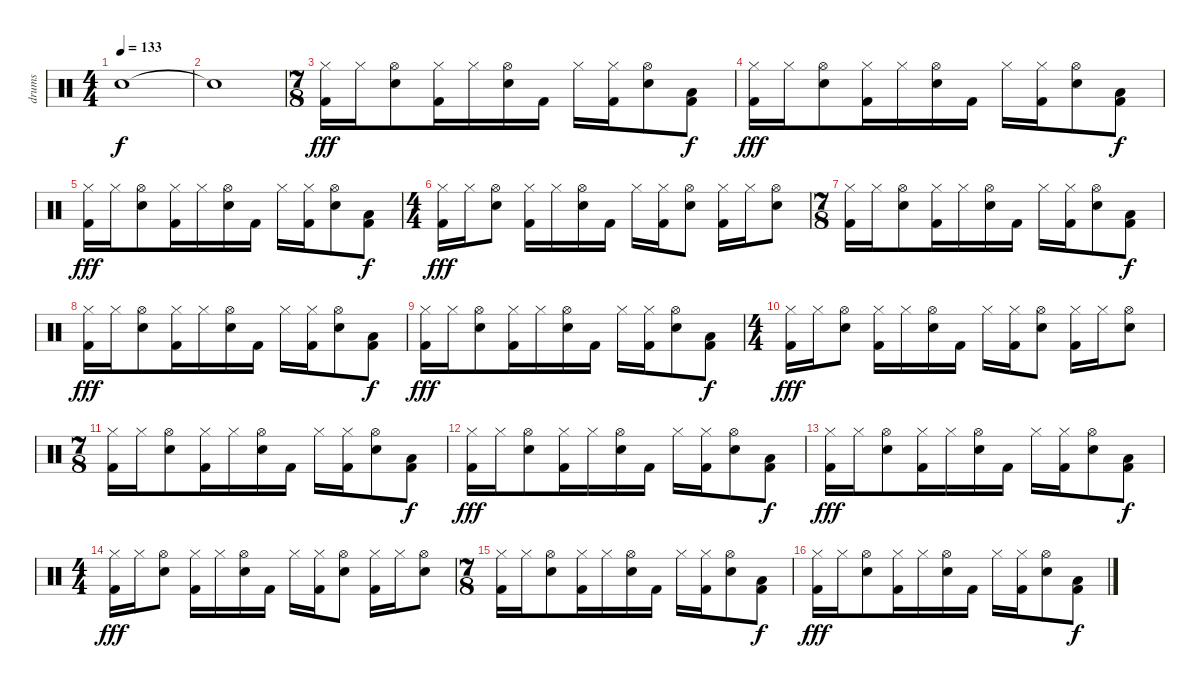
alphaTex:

\track ("drums" "drums") {instrument percussion}
\staff {score}
\articulation defaults
\ts (4 4)
\tempo 133
\clef neutral
\ks c "Snare (hit)"{t}.1{dy f}
|
"Snare (hit)"{t}.1 |
\ts (7 8)
("Kick (hit) 2" "Hi-Hat (closed)").16{dy fff} "Hi-Hat (closed)".16 ("Hi-Hat (open)" "Electric Snare (hit)").8 ("Kick (hit) 2" "Hi-Hat (closed)").16 "Hi-Hat (closed)".16 ("Hi-Hat (open)" "Electric Snare (hit)").16 "Kick (hit) 2".16 "Hi-Hat (closed)".16 ("Kick (hit) 2" "Hi-Hat (closed)").16 ("Hi-Hat (open)" "Electric Snare (hit)").8 ("Kick (hit) 2" "Low Floor Tom (hit)").8{dy f} |
("Kick (hit) 2" "Hi-Hat (closed)").16{dy fff} "Hi-Hat (closed)".16 ("Hi-Hat (open)" "Electric Snare (hit)").8 ("Kick (hit) 2" "Hi-Hat (closed)").16 "Hi-Hat (closed)".16 ("Hi-Hat (open)" "Electric Snare (hit)").16 "Kick (hit) 2".16 "Hi-Hat (closed)".16 ("Kick (hit) 2" "Hi-Hat (closed)").16 ("Hi-Hat (open)" "Electric Snare (hit)").8 ("Kick (hit) 2" "Low Floor Tom (hit)").8{dy f} |
("Kick (hit) 2" "Hi-Hat (closed)").16{dy fff} "Hi-Hat (closed)".16 ("Hi-Hat (open)" "Electric Snare (hit)").8 ("Kick (hit) 2" "Hi-Hat (closed)").16 "Hi-Hat (closed)".16 ("Hi-Hat (open)" "Electric Snare (hit)").16 "Kick (hit) 2".16 "Hi-Hat (closed)".16 ("Kick (hit) 2" "Hi-Hat (closed)").16 ("Hi-Hat (open)" "Electric Snare (hit)").8 ("Kick (hit) 2" "Low Floor Tom (hit)").8{dy f} |
\ts (4 4)
("Kick (hit) 2" "Hi-Hat (closed)").16{dy fff} "Hi-Hat (closed)".16 ("Hi-Hat (open)" "Electric Snare (hit)").8 ("Kick (hit) 2" "Hi-Hat (closed)").16 "Hi-Hat (closed)".16 ("Hi-Hat (open)" "Electric Snare (hit)").16 "Kick (hit) 2".16 "Hi-Hat (closed)".16 ("Kick (hit) 2" "Hi-Hat (closed)").16 ("Hi-Hat (open)" "Electric Snare (hit)").8 ("Hi-Hat (closed)" "Kick (hit) 2").16 "Hi-Hat (closed)".16 ("Hi-Hat (open)" "Electric Snare (hit)").8 |
\ts (7 8)
("Kick (hit) 2" "Hi-Hat (closed)").16 "Hi-Hat (closed)".16 ("Hi-Hat (open)" "Electric Snare (hit)").8 ("Kick (hit) 2" "Hi-Hat (closed)").16 "Hi-Hat (closed)".16 ("Hi-Hat (open)" "Electric Snare (hit)").16 "Kick (hit) 2".16 "Hi-Hat (closed)".16 ("Kick (hit) 2" "Hi-Hat (closed)").16 ("Hi-Hat (open)" "Electric Snare (hit)").8 ("Kick (hit) 2" "Low Floor Tom (hit)").8{dy f} |
("Kick (hit) 2" "Hi-Hat (closed)").16{dy fff} "Hi-Hat (closed)".16 ("Hi-Hat (open)" "Electric Snare (hit)").8 ("Kick (hit) 2" "Hi-Hat (closed)").16 "Hi-Hat (closed)".16 ("Hi-Hat (open)" "Electric Snare (hit)").16 "Kick (hit) 2".16 "Hi-Hat (closed)".16 ("Kick (hit) 2" "Hi-Hat (closed)").16 ("Hi-Hat (open)" "Electric Snare (hit)").8 ("Kick (hit) 2" "Low Floor Tom (hit)").8{dy f} |
("Kick (hit) 2" "Hi-Hat (closed)").16{dy fff} "Hi-Hat (closed)".16 ("Hi-Hat (open)" "Electric Snare (hit)").8 ("Kick (hit) 2" "Hi-Hat (closed)").16 "Hi-Hat (closed)".16 ("Hi-Hat (open)" "Electric Snare (hit)").16 "Kick (hit) 2".16 "Hi-Hat (closed)".16 ("Kick (hit) 2" "Hi-Hat (closed)").16 ("Hi-Hat (open)" "Electric Snare (hit)").8 ("Kick (hit) 2" "Low Floor Tom (hit)").8{dy f} |
\ts (4 4)
("Kick (hit) 2" "Hi-Hat (closed)").16{dy fff} "Hi-Hat (closed)".16 ("Hi-Hat (open)" "Electric Snare (hit)").8 ("Kick (hit) 2" "Hi-Hat (closed)").16 "Hi-Hat (closed)".16 ("Hi-Hat (open)" "Electric Snare (hit)").16 "Kick (hit) 2".16 "Hi-Hat (closed)".16 ("Kick (hit) 2" "Hi-Hat (closed)").16 ("Hi-Hat (open)" "Electric Snare (hit)").8 ("Hi-Hat (closed)" "Kick (hit) 2").16 "Hi-Hat (closed)".16 ("Hi-Hat (open)" "Electric Snare (hit)").8 |
\ts (7 8)
("Kick (hit) 2" "Hi-Hat (closed)").16 "Hi-Hat (closed)".16 ("Hi-Hat (open)" "Electric Snare (hit)").8 ("Kick (hit) 2" "Hi-Hat (closed)").16 "Hi-Hat (closed)".16 ("Hi-Hat (open)" "Electric Snare (hit)").16 "Kick (hit) 2".16 "Hi-Hat (closed)".16 ("Kick (hit) 2" "Hi-Hat (closed)").16 ("Hi-Hat (open)" "Electric Snare (hit)").8 ("Kick (hit) 2" "Low Floor Tom (hit)").8{dy f} |
("Kick (hit) 2" "Hi-Hat (closed)").16{dy fff} "Hi-Hat (closed)".16 ("Hi-Hat (open)" "Electric Snare (hit)").8 ("Kick (hit) 2" "Hi-Hat (closed)").16 "Hi-Hat (closed)".16 ("Hi-Hat (open)" "Electric Snare (hit)").16 "Kick (hit) 2".16 "Hi-Hat (closed)".16 ("Kick (hit) 2" "Hi-Hat (closed)").16 ("Hi-Hat (open)" "Electric Snare (hit)").8 ("Kick (hit) 2" "Low Floor Tom (hit)").8{dy f} |
("Kick (hit) 2" "Hi-Hat (closed)").16{dy fff} "Hi-Hat (closed)".16 ("Hi-Hat (open)" "Electric Snare (hit)").8 ("Kick (hit) 2" "Hi-Hat (closed)").16 "Hi-Hat (closed)".16 ("Hi-Hat (open)" "Electric Snare (hit)").16 "Kick (hit) 2".16 "Hi-Hat (closed)".16 ("Kick (hit) 2" "Hi-Hat (closed)").16 ("Hi-Hat (open)" "Electric Snare (hit)").8 ("Kick (hit) 2" "Low Floor Tom (hit)").8{dy f} |
\ts (4 4)
("Kick (hit) 2" "Hi-Hat (closed)").16{dy fff} "Hi-Hat (closed)".16 ("Hi-Hat (open)" "Electric Snare (hit)").8 ("Kick (hit) 2" "Hi-Hat (closed)").16 "Hi-Hat (closed)".16 ("Hi-Hat (open)" "Electric Snare (hit)").16 "Kick (hit) 2".16 "Hi-Hat (closed)".16 ("Kick (hit) 2" "Hi-Hat (closed)").16 ("Hi-Hat (open)" "Electric Snare (hit)").8 ("Hi-Hat (closed)" "Kick (hit) 2").16 "Hi-Hat (closed)".16 ("Hi-Hat (open)" "Electric Snare (hit)").8 |
\ts (7 8)
("Kick (hit) 2" "Hi-Hat (closed)").16 "Hi-Hat (closed)".16 ("Hi-Hat (open)" "Electric Snare (hit)").8 ("Kick (hit) 2" "Hi-Hat (closed)").16 "Hi-Hat (closed)".16 ("Hi-Hat (open)" "Electric Snare (hit)").16 "Kick (hit) 2".16 "Hi-Hat (closed)".16 ("Kick (hit) 2" "Hi-Hat (closed)").16 ("Hi-Hat (open)" "Electric Snare (hit)").8 ("Kick (hit) 2" "Low Floor Tom (hit)").8{dy f} |
("Kick (hit) 2" "Hi-Hat (closed)").16{dy fff} "Hi-Hat (closed)".16 ("Hi-Hat (open)" "Electric Snare (hit)").8 ("Kick (hit) 2" "Hi-Hat (closed)").16 "Hi-Hat (closed)".16 ("Hi-Hat (open)" "Electric Snare (hit)").16 "Kick (hit) 2".16 "Hi-Hat (closed)".16 ("Kick (hit) 2" "Hi-Hat (closed)").16 ("Hi-Hat (open)" "Electric Snare (hit)").8 ("Kick (hit) 2" "Low Floor Tom (hit)").8{dy f}
